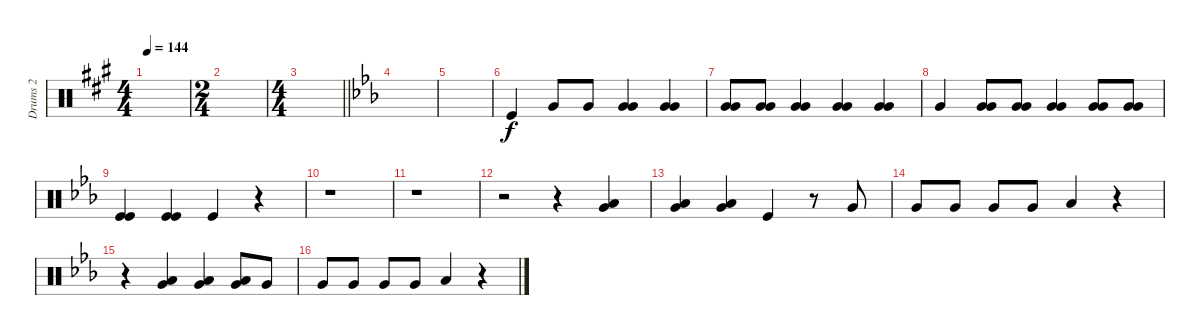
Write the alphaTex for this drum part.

\track ("Drums 2" "Drums 2") {instrument percussion}
\staff {score}
\articulation defaults
\ts (4 4)
\tempo 144
\clef neutral
\ks a
|
\ts (2 4)
|
\ts (4 4)
\barLineRight lightlight
|
\ks eb
|
|
"Kick (hit)".4 "Very Low Tom (hit)".8 "Very Low Tom (hit)".8 ("Very Low Tom (hit)" "Very Low Tom (hit)").4 ("Very Low Tom (hit)" "Very Low Tom (hit)").4 |
("Very Low Tom (hit)" "Very Low Tom (hit)").8 ("Very Low Tom (hit)" "Very Low Tom (hit)").8 ("Very Low Tom (hit)" "Very Low Tom (hit)").4 ("Very Low Tom (hit)" "Very Low Tom (hit)").4 ("Very Low Tom (hit)" "Very Low Tom (hit)").4 |
"Very Low Tom (hit)".4 ("Very Low Tom (hit)" "Very Low Tom (hit)").8 ("Very Low Tom (hit)" "Very Low Tom (hit)").8 ("Very Low Tom (hit)" "Very Low Tom (hit)").4 ("Very Low Tom (hit)" "Very Low Tom (hit)").8 ("Very Low Tom (hit)" "Very Low Tom (hit)").8 |
("Kick (hit)" "Kick (hit)").4 ("Kick (hit)" "Kick (hit)").4 "Kick (hit)".4 r.4 |
r.1 |
r.1 |
r.2 r.4 ("Very Low Tom (hit)" "Low Tom (hit)").4 |
("Low Tom (hit)" "Very Low Tom (hit)").4 ("Very Low Tom (hit)" "Low Tom (hit)").4 "Kick (hit)".4 r.8 "Very Low Tom (hit)".8 |
"Very Low Tom (hit)".8 "Very Low Tom (hit)".8 "Very Low Tom (hit)".8 "Very Low Tom (hit)".8 "Low Floor Tom (hit)".4 r.4 |
r.4 ("Low Floor Tom (hit)" "Very Low Tom (hit)").4 ("Low Floor Tom (hit)" "Very Low Tom (hit)").4 ("Low Floor Tom (hit)" "Very Low Tom (hit)").8 "Very Low Tom (hit)".8 |
"Very Low Tom (hit)".8 "Very Low Tom (hit)".8 "Very Low Tom (hit)".8 "Very Low Tom (hit)".8 "Low Floor Tom (hit)".4 r.4
